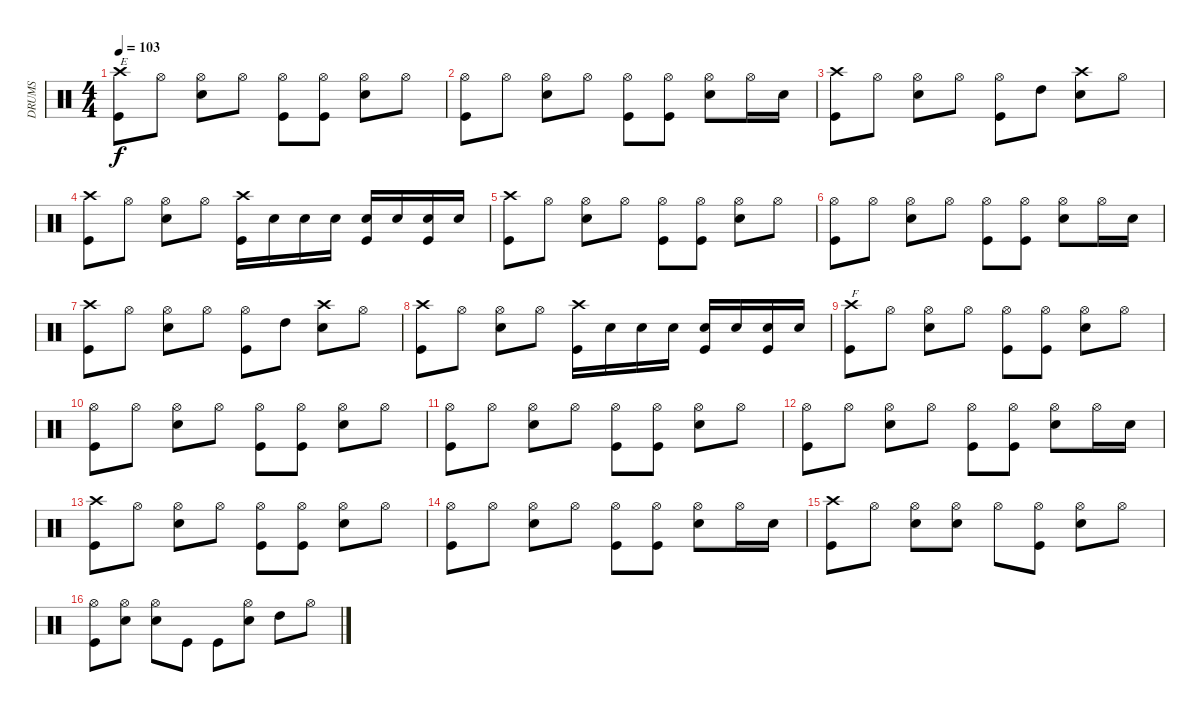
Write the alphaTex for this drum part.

\track ("DRUMS" "DRUMS") {instrument percussion}
\staff {score}
\articulation defaults
\ts (4 4)
\tempo 103
\clef neutral
\ks c
("Crash high (hit)" "Kick (hit)").8{txt "E" dy f} "Hi-Hat (open)".8 ("Hi-Hat (open)" "Electric Snare (hit)").8 "Hi-Hat (open)".8 ("Hi-Hat (open)" "Kick (hit)").8 ("Hi-Hat (open)" "Kick (hit)").8 ("Hi-Hat (open)" "Electric Snare (hit)").8 "Hi-Hat (open)".8 |
("Hi-Hat (open)" "Kick (hit)").8 "Hi-Hat (open)".8 ("Hi-Hat (open)" "Electric Snare (hit)").8 "Hi-Hat (open)".8 ("Hi-Hat (open)" "Kick (hit)").8 ("Hi-Hat (open)" "Kick (hit)").8 ("Hi-Hat (open)" "Electric Snare (hit)").8 "Hi-Hat (open)".16 "Electric Snare (hit)".16 |
("Crash high (hit)" "Kick (hit)").8 "Hi-Hat (open)".8 ("Hi-Hat (open)" "Electric Snare (hit)").8 "Hi-Hat (open)".8 ("Hi-Hat (open)" "Kick (hit)").8 "High Tom (hit)".8 ("Crash high (hit)" "Electric Snare (hit)").8 "Hi-Hat (open)".8 |
("Crash high (hit)" "Kick (hit)").8 "Hi-Hat (open)".8 ("Hi-Hat (open)" "Electric Snare (hit)").8 "Hi-Hat (open)".8 ("Crash high (hit)" "Kick (hit)").16 "Electric Snare (hit)".16 "Electric Snare (hit)".16 "Electric Snare (hit)".16 ("Electric Snare (hit)" "Kick (hit)").16 "Electric Snare (hit)".16 ("Electric Snare (hit)" "Kick (hit)").16 "Electric Snare (hit)".16 |
("Crash high (hit)" "Kick (hit)").8 "Hi-Hat (open)".8 ("Hi-Hat (open)" "Electric Snare (hit)").8 "Hi-Hat (open)".8 ("Hi-Hat (open)" "Kick (hit)").8 ("Hi-Hat (open)" "Kick (hit)").8 ("Hi-Hat (open)" "Electric Snare (hit)").8 "Hi-Hat (open)".8 |
("Hi-Hat (open)" "Kick (hit)").8 "Hi-Hat (open)".8 ("Hi-Hat (open)" "Electric Snare (hit)").8 "Hi-Hat (open)".8 ("Hi-Hat (open)" "Kick (hit)").8 ("Hi-Hat (open)" "Kick (hit)").8 ("Hi-Hat (open)" "Electric Snare (hit)").8 "Hi-Hat (open)".16 "Electric Snare (hit)".16 |
("Crash high (hit)" "Kick (hit)").8 "Hi-Hat (open)".8 ("Hi-Hat (open)" "Electric Snare (hit)").8 "Hi-Hat (open)".8 ("Hi-Hat (open)" "Kick (hit)").8 "High Tom (hit)".8 ("Crash high (hit)" "Electric Snare (hit)").8 "Hi-Hat (open)".8 |
("Crash high (hit)" "Kick (hit)").8 "Hi-Hat (open)".8 ("Hi-Hat (open)" "Electric Snare (hit)").8 "Hi-Hat (open)".8 ("Crash high (hit)" "Kick (hit)").16 "Electric Snare (hit)".16 "Electric Snare (hit)".16 "Electric Snare (hit)".16 ("Electric Snare (hit)" "Kick (hit)").16 "Electric Snare (hit)".16 ("Electric Snare (hit)" "Kick (hit)").16 "Electric Snare (hit)".16 |
("Crash high (hit)" "Kick (hit)").8{txt "F"} "Hi-Hat (open)".8 ("Hi-Hat (open)" "Electric Snare (hit)").8 "Hi-Hat (open)".8 ("Hi-Hat (open)" "Kick (hit)").8 ("Hi-Hat (open)" "Kick (hit)").8 ("Hi-Hat (open)" "Electric Snare (hit)").8 "Hi-Hat (open)".8 |
("Hi-Hat (open)" "Kick (hit)").8 "Hi-Hat (open)".8 ("Hi-Hat (open)" "Electric Snare (hit)").8 "Hi-Hat (open)".8 ("Hi-Hat (open)" "Kick (hit)").8 ("Hi-Hat (open)" "Kick (hit)").8 ("Hi-Hat (open)" "Electric Snare (hit)").8 "Hi-Hat (open)".8 |
("Hi-Hat (open)" "Kick (hit)").8 "Hi-Hat (open)".8 ("Hi-Hat (open)" "Electric Snare (hit)").8 "Hi-Hat (open)".8 ("Hi-Hat (open)" "Kick (hit)").8 ("Hi-Hat (open)" "Kick (hit)").8 ("Hi-Hat (open)" "Electric Snare (hit)").8 "Hi-Hat (open)".8 |
("Hi-Hat (open)" "Kick (hit)").8 "Hi-Hat (open)".8 ("Hi-Hat (open)" "Electric Snare (hit)").8 "Hi-Hat (open)".8 ("Hi-Hat (open)" "Kick (hit)").8 ("Hi-Hat (open)" "Kick (hit)").8 ("Hi-Hat (open)" "Electric Snare (hit)").8 "Hi-Hat (open)".16 "Electric Snare (hit)".16 |
("Crash high (hit)" "Kick (hit)").8 "Hi-Hat (open)".8 ("Hi-Hat (open)" "Electric Snare (hit)").8 "Hi-Hat (open)".8 ("Hi-Hat (open)" "Kick (hit)").8 ("Hi-Hat (open)" "Kick (hit)").8 ("Hi-Hat (open)" "Electric Snare (hit)").8 "Hi-Hat (open)".8 |
("Hi-Hat (open)" "Kick (hit)").8 "Hi-Hat (open)".8 ("Hi-Hat (open)" "Electric Snare (hit)").8 "Hi-Hat (open)".8 ("Hi-Hat (open)" "Kick (hit)").8 ("Hi-Hat (open)" "Kick (hit)").8 ("Hi-Hat (open)" "Electric Snare (hit)").8 "Hi-Hat (open)".16 "Electric Snare (hit)".16 |
("Crash high (hit)" "Kick (hit)").8 "Hi-Hat (open)".8 ("Hi-Hat (open)" "Electric Snare (hit)").8 ("Hi-Hat (open)" "Electric Snare (hit)").8 "Hi-Hat (open)".8 ("Hi-Hat (open)" "Kick (hit)").8 ("Hi-Hat (open)" "Electric Snare (hit)").8 "Hi-Hat (open)".8 |
("Hi-Hat (open)" "Kick (hit)").8 ("Hi-Hat (open)" "Electric Snare (hit)").8 ("Hi-Hat (open)" "Electric Snare (hit)").8 "Kick (hit)".8 "Kick (hit)".8 ("Hi-Hat (open)" "Electric Snare (hit)").8 "High Tom (hit)".8 "Hi-Hat (open)".8
